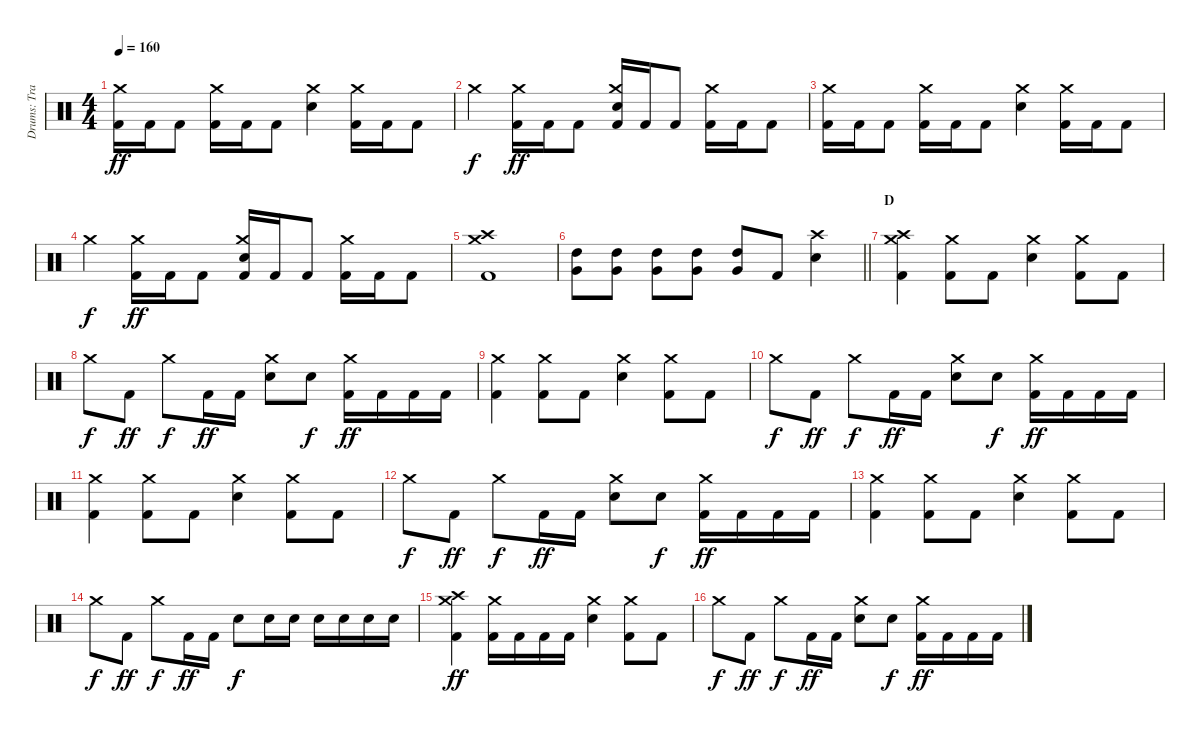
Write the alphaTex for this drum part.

\track ("Drums: Travis Clarke" "Drums: Tra") {instrument percussion}
\staff {score}
\articulation defaults
\ts (4 4)
\tempo 160
\clef neutral
\ks c
("Kick (hit) 2" "Crash medium (hit)").16{dy ff} "Kick (hit) 2".16 "Kick (hit) 2".8 ("Kick (hit) 2" "Crash medium (hit)").16 "Kick (hit) 2".16 "Kick (hit) 2".8 ("Snare (hit) 2" "Crash medium (hit)").4 ("Kick (hit) 2" "Crash medium (hit)").16 "Kick (hit) 2".16 "Kick (hit) 2".8 |
"Crash medium (hit)".4{dy f} ("Kick (hit) 2" "Crash medium (hit)").16{dy ff} "Kick (hit) 2".16 "Kick (hit) 2".8 ("Kick (hit) 2" "Snare (hit) 2" "Crash medium (hit)").16 "Kick (hit) 2".16 "Kick (hit) 2".8 ("Kick (hit) 2" "Crash medium (hit)").16 "Kick (hit) 2".16 "Kick (hit) 2".8 |
("Kick (hit) 2" "Crash medium (hit)").16 "Kick (hit) 2".16 "Kick (hit) 2".8 ("Kick (hit) 2" "Crash medium (hit)").16 "Kick (hit) 2".16 "Kick (hit) 2".8 ("Snare (hit) 2" "Crash medium (hit)").4 ("Kick (hit) 2" "Crash medium (hit)").16 "Kick (hit) 2".16 "Kick (hit) 2".8 |
"Crash medium (hit)".4{dy f} ("Kick (hit) 2" "Crash medium (hit)").16{dy ff} "Kick (hit) 2".16 "Kick (hit) 2".8 ("Kick (hit) 2" "Snare (hit) 2" "Crash medium (hit)").16 "Kick (hit) 2".16 "Kick (hit) 2".8 ("Kick (hit) 2" "Crash medium (hit)").16 "Kick (hit) 2".16 "Kick (hit) 2".8 |
("Kick (hit) 2" "Crash high (hit)" "Crash medium (hit)").1 |
\barLineRight lightlight
("Very Low Tom (hit)" "High Tom (hit)").8 ("Very Low Tom (hit)" "High Tom (hit)").8 ("Very Low Tom (hit)" "High Tom (hit)").8 ("Very Low Tom (hit)" "High Tom (hit)").8 ("Very Low Tom (hit)" "High Tom (hit)").8 "Kick (hit) 2".8 ("Snare (hit) 2" "Crash high (hit)").4 |
\section ("" "D")
("Kick (hit) 2" "Crash high (hit)" "Crash medium (hit)").4 ("Kick (hit) 2" "Crash medium (hit)").8 "Kick (hit) 2".8 ("Snare (hit) 2" "Crash medium (hit)").4 ("Kick (hit) 2" "Crash medium (hit)").8 "Kick (hit) 2".8 |
"Crash medium (hit)".8{dy f} "Kick (hit) 2".8{dy ff} "Crash medium (hit)".8{dy f} "Kick (hit) 2".16{dy ff} "Kick (hit) 2".16 ("Snare (hit) 2" "Crash medium (hit)").8 "Snare (hit) 2".8{dy f} ("Kick (hit) 2" "Crash medium (hit)").16{dy ff} "Kick (hit) 2".16 "Kick (hit) 2".16 "Kick (hit) 2".16 |
("Kick (hit) 2" "Crash medium (hit)").4 ("Kick (hit) 2" "Crash medium (hit)").8 "Kick (hit) 2".8 ("Snare (hit) 2" "Crash medium (hit)").4 ("Kick (hit) 2" "Crash medium (hit)").8 "Kick (hit) 2".8 |
"Crash medium (hit)".8{dy f} "Kick (hit) 2".8{dy ff} "Crash medium (hit)".8{dy f} "Kick (hit) 2".16{dy ff} "Kick (hit) 2".16 ("Snare (hit) 2" "Crash medium (hit)").8 "Snare (hit) 2".8{dy f} ("Kick (hit) 2" "Crash medium (hit)").16{dy ff} "Kick (hit) 2".16 "Kick (hit) 2".16 "Kick (hit) 2".16 |
("Kick (hit) 2" "Crash medium (hit)").4 ("Kick (hit) 2" "Crash medium (hit)").8 "Kick (hit) 2".8 ("Snare (hit) 2" "Crash medium (hit)").4 ("Kick (hit) 2" "Crash medium (hit)").8 "Kick (hit) 2".8 |
"Crash medium (hit)".8{dy f} "Kick (hit) 2".8{dy ff} "Crash medium (hit)".8{dy f} "Kick (hit) 2".16{dy ff} "Kick (hit) 2".16 ("Snare (hit) 2" "Crash medium (hit)").8 "Snare (hit) 2".8{dy f} ("Kick (hit) 2" "Crash medium (hit)").16{dy ff} "Kick (hit) 2".16 "Kick (hit) 2".16 "Kick (hit) 2".16 |
("Kick (hit) 2" "Crash medium (hit)").4 ("Kick (hit) 2" "Crash medium (hit)").8 "Kick (hit) 2".8 ("Snare (hit) 2" "Crash medium (hit)").4 ("Kick (hit) 2" "Crash medium (hit)").8 "Kick (hit) 2".8 |
"Crash medium (hit)".8{dy f} "Kick (hit) 2".8{dy ff} "Crash medium (hit)".8{dy f} "Kick (hit) 2".16{dy ff} "Kick (hit) 2".16 "Snare (hit) 2".8{dy f} "Snare (hit) 2".16 "Snare (hit) 2".16 "Snare (hit) 2".16 "Snare (hit) 2".16 "Snare (hit) 2".16 "Snare (hit) 2".16 |
("Kick (hit) 2" "Crash high (hit)" "Crash medium (hit)").4{dy ff} ("Kick (hit) 2" "Crash medium (hit)").16 "Kick (hit) 2".16 "Kick (hit) 2".16 "Kick (hit) 2".16 ("Snare (hit) 2" "Crash medium (hit)").4 ("Kick (hit) 2" "Crash medium (hit)").8 "Kick (hit) 2".8 |
"Crash medium (hit)".8{dy f} "Kick (hit) 2".8{dy ff} "Crash medium (hit)".8{dy f} "Kick (hit) 2".16{dy ff} "Kick (hit) 2".16 ("Snare (hit) 2" "Crash medium (hit)").8 "Snare (hit) 2".8{dy f} ("Kick (hit) 2" "Crash medium (hit)").16{dy ff} "Kick (hit) 2".16 "Kick (hit) 2".16 "Kick (hit) 2".16
